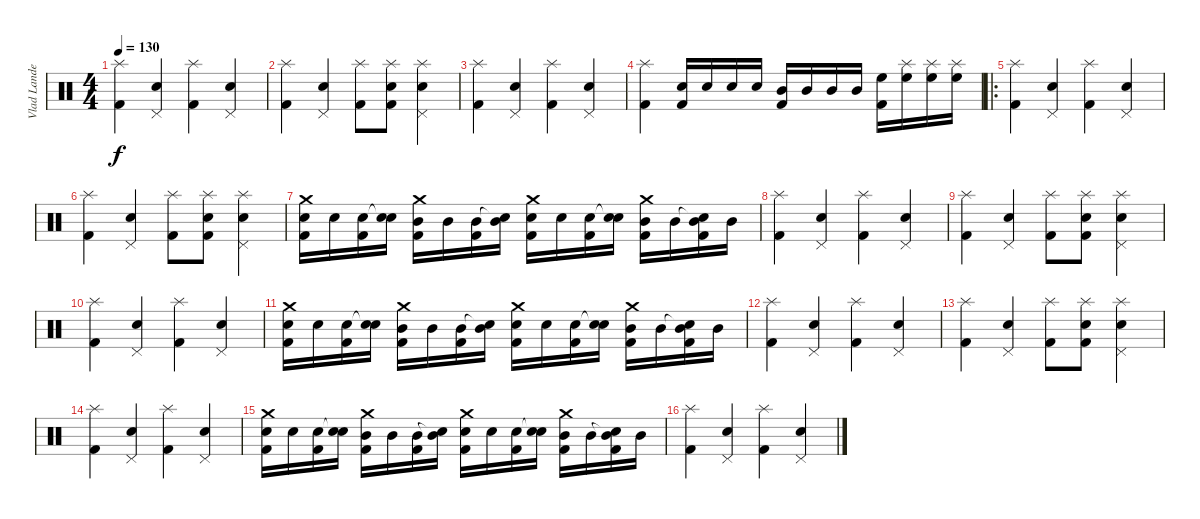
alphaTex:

\track ("Vlad Landeros" "Vlad Lande") {instrument percussion}
\staff {score}
\articulation defaults
\ts (4 4)
\tempo 130
\clef neutral
\ks c
("Splash (hit)" "Kick (hit) 2").4{dy f} ("Pedal Hi-Hat (hit)" "Snare (hit) 2").4 ("Splash (hit)" "Kick (hit) 2").4 ("Pedal Hi-Hat (hit)" "Snare (hit) 2").4 |
("Splash (hit)" "Kick (hit) 2").4 ("Pedal Hi-Hat (hit)" "Snare (hit) 2").4 ("Splash (hit)" "Kick (hit) 2").8 ("Splash (hit)" "Snare (hit) 2" "Kick (hit) 2").8 ("Splash (hit)" "Pedal Hi-Hat (hit)" "Snare (hit) 2").4 |
("Splash (hit)" "Kick (hit) 2").4 ("Pedal Hi-Hat (hit)" "Snare (hit) 2").4 ("Splash (hit)" "Kick (hit) 2").4 ("Pedal Hi-Hat (hit)" "Snare (hit) 2").4 |
("Splash (hit)" "Kick (hit) 2").4 ("Snare (hit) 2" "Kick (hit) 2").16 "Snare (hit) 2".16 "Snare (hit) 2".16 "Snare (hit) 2".16 ("Mid Tom (hit)" "Kick (hit) 2").16 "Mid Tom (hit)".16 "Mid Tom (hit)".16 "Mid Tom (hit)".16 ("High Floor Tom (hit)" "Kick (hit) 2").16 ("Splash (hit)" "High Floor Tom (hit)").16 ("Splash (hit)" "High Floor Tom (hit)").16 ("Splash (hit)" "High Floor Tom (hit)").16 |
\ro
("Splash (hit)" "Kick (hit) 2").4 ("Pedal Hi-Hat (hit)" "Snare (hit) 2").4 ("Splash (hit)" "Kick (hit) 2").4 ("Pedal Hi-Hat (hit)" "Snare (hit) 2").4 |
("Splash (hit)" "Kick (hit) 2").4 ("Pedal Hi-Hat (hit)" "Snare (hit) 2").4 ("Splash (hit)" "Kick (hit) 2").8 ("Splash (hit)" "Snare (hit) 2" "Kick (hit) 2").8 ("Splash (hit)" "Pedal Hi-Hat (hit)" "Snare (hit) 2").4 |
("Crash medium (hit)" "Snare (hit) 2" "Kick (hit) 2").16 "Snare (hit) 2".16 ("Snare (hit) 2" "Kick (hit) 2").16 ("Snare (hit)"{t} "Snare (hit) 2").16 ("Crash medium (hit)" "Mid Tom (hit)" "Kick (hit) 2").16 "Mid Tom (hit)".16 ("Mid Tom (hit)" "Kick (hit) 2").16 ("Snare (hit)"{t} "Mid Tom (hit)").16 ("Crash medium (hit)" "Snare (hit) 2" "Kick (hit) 2").16 "Snare (hit) 2".16 ("Snare (hit) 2" "Kick (hit) 2").16 ("Snare (hit)"{t} "Snare (hit) 2").16 ("Crash medium (hit)" "Mid Tom (hit)" "Kick (hit) 2").16 "Mid Tom (hit)".16 ("Snare (hit)"{t} "Mid Tom (hit)" "Kick (hit) 2").16 "Mid Tom (hit)".16 |
("Splash (hit)" "Kick (hit) 2").4 ("Pedal Hi-Hat (hit)" "Snare (hit) 2").4 ("Splash (hit)" "Kick (hit) 2").4 ("Pedal Hi-Hat (hit)" "Snare (hit) 2").4 |
("Splash (hit)" "Kick (hit) 2").4 ("Pedal Hi-Hat (hit)" "Snare (hit) 2").4 ("Splash (hit)" "Kick (hit) 2").8 ("Splash (hit)" "Snare (hit) 2" "Kick (hit) 2").8 ("Splash (hit)" "Pedal Hi-Hat (hit)" "Snare (hit) 2").4 |
("Splash (hit)" "Kick (hit) 2").4 ("Pedal Hi-Hat (hit)" "Snare (hit) 2").4 ("Splash (hit)" "Kick (hit) 2").4 ("Pedal Hi-Hat (hit)" "Snare (hit) 2").4 |
("Crash medium (hit)" "Snare (hit) 2" "Kick (hit) 2").16 "Snare (hit) 2".16 ("Snare (hit) 2" "Kick (hit) 2").16 ("Snare (hit)"{t} "Snare (hit) 2").16 ("Crash medium (hit)" "Mid Tom (hit)" "Kick (hit) 2").16 "Mid Tom (hit)".16 ("Mid Tom (hit)" "Kick (hit) 2").16 ("Snare (hit)"{t} "Mid Tom (hit)").16 ("Crash medium (hit)" "Snare (hit) 2" "Kick (hit) 2").16 "Snare (hit) 2".16 ("Snare (hit) 2" "Kick (hit) 2").16 ("Snare (hit)"{t} "Snare (hit) 2").16 ("Crash medium (hit)" "Mid Tom (hit)" "Kick (hit) 2").16 "Mid Tom (hit)".16 ("Snare (hit)"{t} "Mid Tom (hit)" "Kick (hit) 2").16 "Mid Tom (hit)".16 |
("Splash (hit)" "Kick (hit) 2").4 ("Pedal Hi-Hat (hit)" "Snare (hit) 2").4 ("Splash (hit)" "Kick (hit) 2").4 ("Pedal Hi-Hat (hit)" "Snare (hit) 2").4 |
("Splash (hit)" "Kick (hit) 2").4 ("Pedal Hi-Hat (hit)" "Snare (hit) 2").4 ("Splash (hit)" "Kick (hit) 2").8 ("Splash (hit)" "Snare (hit) 2" "Kick (hit) 2").8 ("Splash (hit)" "Pedal Hi-Hat (hit)" "Snare (hit) 2").4 |
("Splash (hit)" "Kick (hit) 2").4 ("Pedal Hi-Hat (hit)" "Snare (hit) 2").4 ("Splash (hit)" "Kick (hit) 2").4 ("Pedal Hi-Hat (hit)" "Snare (hit) 2").4 |
("Crash medium (hit)" "Snare (hit) 2" "Kick (hit) 2").16 "Snare (hit) 2".16 ("Snare (hit) 2" "Kick (hit) 2").16 ("Snare (hit)"{t} "Snare (hit) 2").16 ("Crash medium (hit)" "Mid Tom (hit)" "Kick (hit) 2").16 "Mid Tom (hit)".16 ("Mid Tom (hit)" "Kick (hit) 2").16 ("Snare (hit)"{t} "Mid Tom (hit)").16 ("Crash medium (hit)" "Snare (hit) 2" "Kick (hit) 2").16 "Snare (hit) 2".16 ("Snare (hit) 2" "Kick (hit) 2").16 ("Snare (hit)"{t} "Snare (hit) 2").16 ("Crash medium (hit)" "Mid Tom (hit)" "Kick (hit) 2").16 "Mid Tom (hit)".16 ("Snare (hit)"{t} "Mid Tom (hit)" "Kick (hit) 2").16 "Mid Tom (hit)".16 |
("Splash (hit)" "Kick (hit) 2").4 ("Pedal Hi-Hat (hit)" "Snare (hit) 2").4 ("Splash (hit)" "Kick (hit) 2").4 ("Pedal Hi-Hat (hit)" "Snare (hit) 2").4
